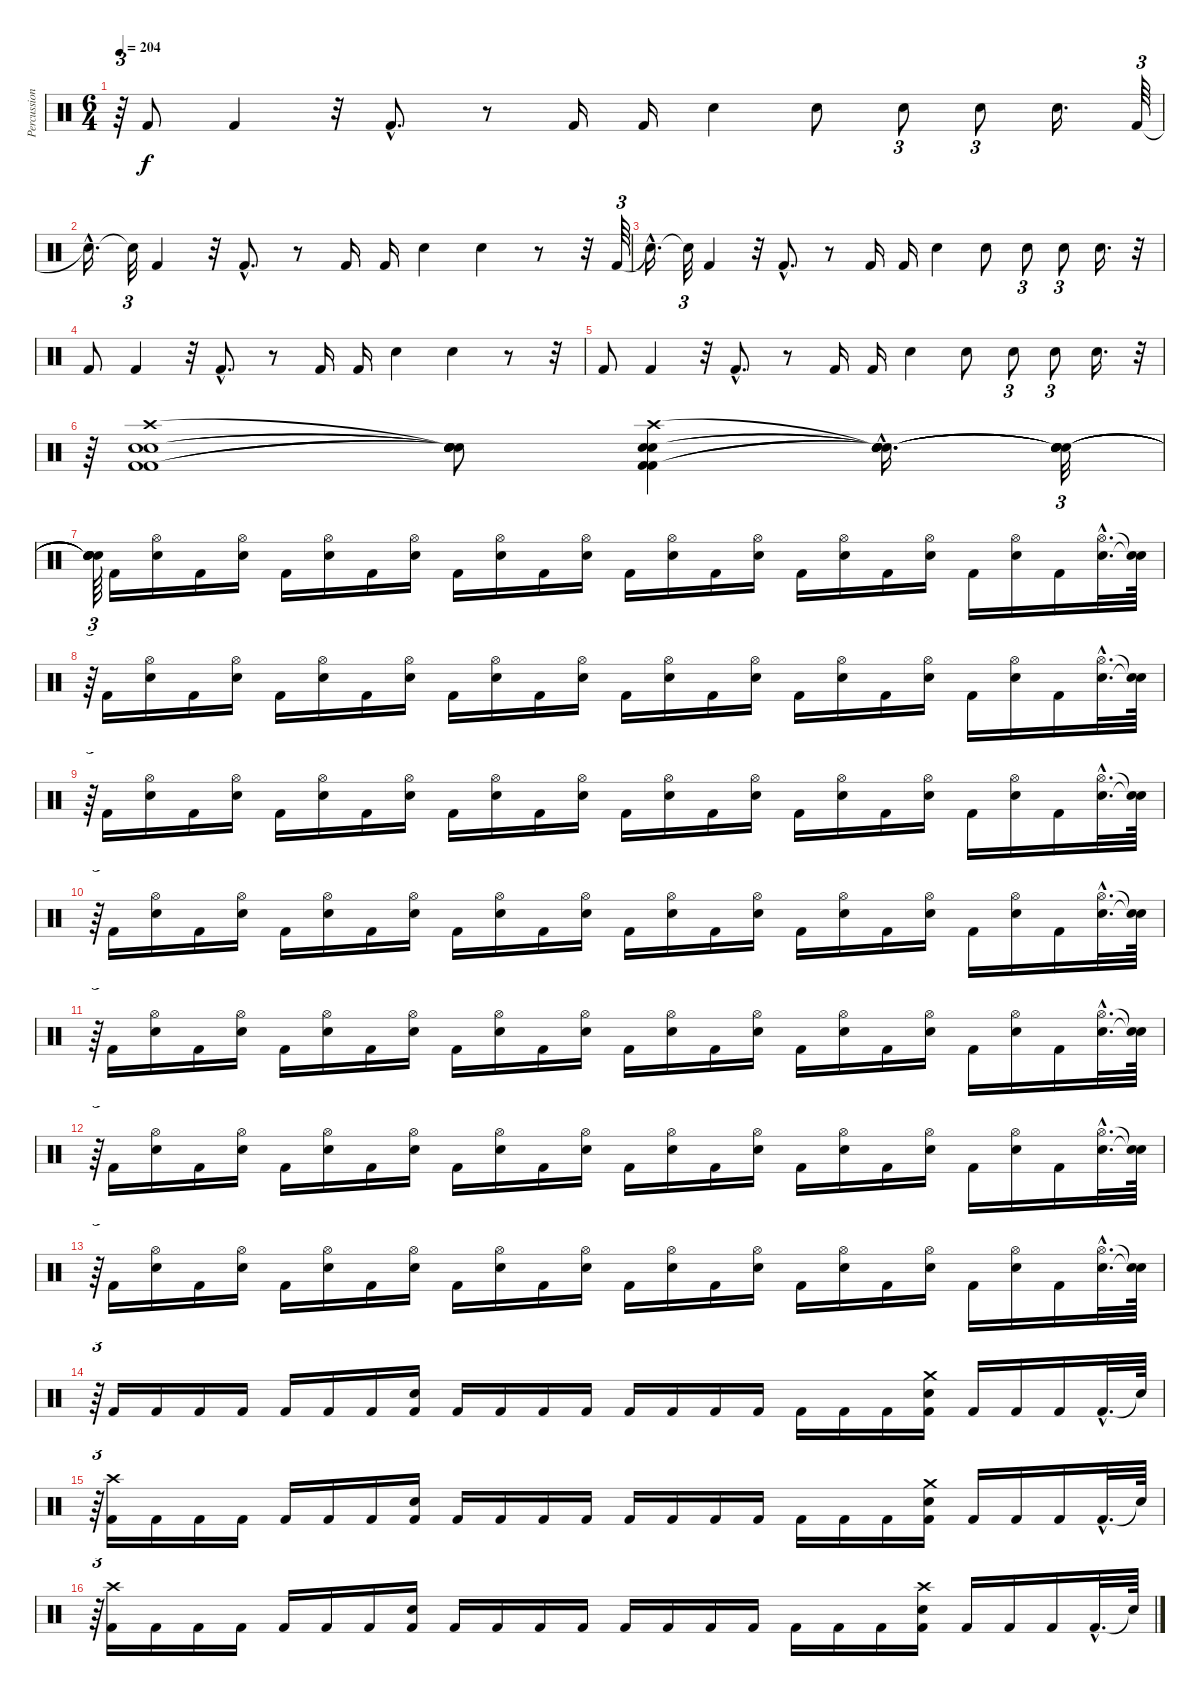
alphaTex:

\track ("Percussions" "Percussion") {instrument percussion}
\staff {score}
\articulation defaults
\ts (6 4)
\tempo 204
\clef neutral
\ks c
r.64{tu (3 2) dy f} "Kick (hit) 2".8 "Kick (hit) 2".4 r.32 "Kick (hit) 2"{hac}.8{d} r.8 "Kick (hit) 2".16 "Kick (hit) 2".16 "Electric Snare (hit)".4 "Electric Snare (hit)".8 "Electric Snare (hit)".8{tu (3 2)} "Electric Snare (hit)".8{tu (3 2)} "Electric Snare (hit)".16{d} "Kick (hit) 2".64{tu (3 2)} |
"Snare (hit)"{hac t}.16{d} "Snare (hit)"{t}.32{tu (3 2)} "Kick (hit) 2".4 r.32 "Kick (hit) 2"{hac}.8{d} r.8 "Kick (hit) 2".16 "Kick (hit) 2".16 "Electric Snare (hit)".4 "Electric Snare (hit)".4 r.8 r.32 "Kick (hit) 2".64{tu (3 2)} |
"Snare (hit)"{hac t}.16{d} "Snare (hit)"{t}.32{tu (3 2)} "Kick (hit) 2".4 r.32 "Kick (hit) 2"{hac}.8{d} r.8 "Kick (hit) 2".16 "Kick (hit) 2".16 "Electric Snare (hit)".4 "Electric Snare (hit)".8 "Electric Snare (hit)".8{tu (3 2)} "Electric Snare (hit)".8{tu (3 2)} "Electric Snare (hit)".16{d} r.32 |
"Kick (hit) 2".8 "Kick (hit) 2".4 r.32 "Kick (hit) 2"{hac}.8{d} r.8 "Kick (hit) 2".16 "Kick (hit) 2".16 "Electric Snare (hit)".4 "Electric Snare (hit)".4 r.8 r.32 |
"Kick (hit) 2".8 "Kick (hit) 2".4 r.32 "Kick (hit) 2"{hac}.8{d} r.8 "Kick (hit) 2".16 "Kick (hit) 2".16 "Electric Snare (hit)".4 "Electric Snare (hit)".8 "Electric Snare (hit)".8{tu (3 2)} "Electric Snare (hit)".8{tu (3 2)} "Electric Snare (hit)".16{d} r.32{tu (3 2)} |
r.64{tu (3 2)} ("Crash high (hit)" "Electric Snare (hit)" "Kick (hit) 2" "Electric Snare (hit)" "Kick (hit) 2").1{volume 10} ("Snare (hit)"{t} "Snare (hit)"{t} "Snare (hit)"{t} "Snare (hit)"{t} "Snare (hit)"{t}).8 ("Crash high (hit)" "Electric Snare (hit)" "Electric Snare (hit)" "Kick (hit) 2" "Kick (hit) 2").4 ("Snare (hit)"{hac t} "Snare (hit)"{hac t} "Snare (hit)"{hac t} "Snare (hit)"{hac t} "Snare (hit)"{hac t}).16{d} ("Snare (hit)"{t} "Snare (hit)"{t} "Snare (hit)"{t} "Snare (hit)"{t} "Snare (hit)"{t}).32{tu (3 2)} |
("Snare (hit)"{t} "Snare (hit)"{t} "Snare (hit)"{t} "Snare (hit)"{t} "Snare (hit)"{t}).64{tu (3 2)} "Kick (hit) 2".16{volume 10} ("Hi-Hat (open)" "Electric Snare (hit)").16 "Kick (hit) 2".16 ("Hi-Hat (open)" "Electric Snare (hit)").16 "Kick (hit) 2".16 ("Hi-Hat (open)" "Electric Snare (hit)").16 "Kick (hit) 2".16 ("Hi-Hat (open)" "Electric Snare (hit)").16 "Kick (hit) 2".16 ("Hi-Hat (open)" "Electric Snare (hit)").16 "Kick (hit) 2".16 ("Hi-Hat (open)" "Electric Snare (hit)").16 "Kick (hit) 2".16 ("Hi-Hat (open)" "Electric Snare (hit)").16 "Kick (hit) 2".16 ("Hi-Hat (open)" "Electric Snare (hit)").16 "Kick (hit) 2".16 ("Hi-Hat (open)" "Electric Snare (hit)").16 "Kick (hit) 2".16 ("Hi-Hat (open)" "Electric Snare (hit)").16 "Kick (hit) 2".16 ("Hi-Hat (open)" "Electric Snare (hit)").16 "Kick (hit) 2".16 ("Hi-Hat (open)"{hac} "Electric Snare (hit)"{hac}).32{d} ("Snare (hit)"{t} "Snare (hit)"{t}).64 |
r.64{tu (3 2)} "Kick (hit) 2".16{volume 10} ("Hi-Hat (open)" "Electric Snare (hit)").16 "Kick (hit) 2".16 ("Hi-Hat (open)" "Electric Snare (hit)").16 "Kick (hit) 2".16 ("Hi-Hat (open)" "Electric Snare (hit)").16 "Kick (hit) 2".16 ("Hi-Hat (open)" "Electric Snare (hit)").16 "Kick (hit) 2".16 ("Hi-Hat (open)" "Electric Snare (hit)").16 "Kick (hit) 2".16 ("Hi-Hat (open)" "Electric Snare (hit)").16 "Kick (hit) 2".16 ("Hi-Hat (open)" "Electric Snare (hit)").16 "Kick (hit) 2".16 ("Hi-Hat (open)" "Electric Snare (hit)").16 "Kick (hit) 2".16 ("Hi-Hat (open)" "Electric Snare (hit)").16 "Kick (hit) 2".16 ("Hi-Hat (open)" "Electric Snare (hit)").16 "Kick (hit) 2".16 ("Hi-Hat (open)" "Electric Snare (hit)").16 "Kick (hit) 2".16 ("Hi-Hat (open)"{hac} "Electric Snare (hit)"{hac}).32{d} ("Snare (hit)"{t} "Snare (hit)"{t}).64 |
r.64{tu (3 2)} "Kick (hit) 2".16{volume 10} ("Hi-Hat (open)" "Electric Snare (hit)").16 "Kick (hit) 2".16 ("Hi-Hat (open)" "Electric Snare (hit)").16 "Kick (hit) 2".16 ("Hi-Hat (open)" "Electric Snare (hit)").16 "Kick (hit) 2".16 ("Hi-Hat (open)" "Electric Snare (hit)").16 "Kick (hit) 2".16 ("Hi-Hat (open)" "Electric Snare (hit)").16 "Kick (hit) 2".16 ("Hi-Hat (open)" "Electric Snare (hit)").16 "Kick (hit) 2".16 ("Hi-Hat (open)" "Electric Snare (hit)").16 "Kick (hit) 2".16 ("Hi-Hat (open)" "Electric Snare (hit)").16 "Kick (hit) 2".16 ("Hi-Hat (open)" "Electric Snare (hit)").16 "Kick (hit) 2".16 ("Hi-Hat (open)" "Electric Snare (hit)").16 "Kick (hit) 2".16 ("Hi-Hat (open)" "Electric Snare (hit)").16 "Kick (hit) 2".16 ("Hi-Hat (open)"{hac} "Electric Snare (hit)"{hac}).32{d} ("Snare (hit)"{t} "Snare (hit)"{t}).64 |
r.64{tu (3 2)} "Kick (hit) 2".16{volume 10} ("Hi-Hat (open)" "Electric Snare (hit)").16 "Kick (hit) 2".16 ("Hi-Hat (open)" "Electric Snare (hit)").16 "Kick (hit) 2".16 ("Hi-Hat (open)" "Electric Snare (hit)").16 "Kick (hit) 2".16 ("Hi-Hat (open)" "Electric Snare (hit)").16 "Kick (hit) 2".16 ("Hi-Hat (open)" "Electric Snare (hit)").16 "Kick (hit) 2".16 ("Hi-Hat (open)" "Electric Snare (hit)").16 "Kick (hit) 2".16 ("Hi-Hat (open)" "Electric Snare (hit)").16 "Kick (hit) 2".16 ("Hi-Hat (open)" "Electric Snare (hit)").16 "Kick (hit) 2".16 ("Hi-Hat (open)" "Electric Snare (hit)").16 "Kick (hit) 2".16 ("Hi-Hat (open)" "Electric Snare (hit)").16 "Kick (hit) 2".16 ("Hi-Hat (open)" "Electric Snare (hit)").16 "Kick (hit) 2".16 ("Hi-Hat (open)"{hac} "Electric Snare (hit)"{hac}).32{d} ("Snare (hit)"{t} "Snare (hit)"{t}).64 |
r.64{tu (3 2)} "Kick (hit) 2".16{volume 10} ("Hi-Hat (open)" "Electric Snare (hit)").16 "Kick (hit) 2".16 ("Hi-Hat (open)" "Electric Snare (hit)").16 "Kick (hit) 2".16 ("Hi-Hat (open)" "Electric Snare (hit)").16 "Kick (hit) 2".16 ("Hi-Hat (open)" "Electric Snare (hit)").16 "Kick (hit) 2".16 ("Hi-Hat (open)" "Electric Snare (hit)").16 "Kick (hit) 2".16 ("Hi-Hat (open)" "Electric Snare (hit)").16 "Kick (hit) 2".16 ("Hi-Hat (open)" "Electric Snare (hit)").16 "Kick (hit) 2".16 ("Hi-Hat (open)" "Electric Snare (hit)").16 "Kick (hit) 2".16 ("Hi-Hat (open)" "Electric Snare (hit)").16 "Kick (hit) 2".16 ("Hi-Hat (open)" "Electric Snare (hit)").16 "Kick (hit) 2".16 ("Hi-Hat (open)" "Electric Snare (hit)").16 "Kick (hit) 2".16 ("Hi-Hat (open)"{hac} "Electric Snare (hit)"{hac}).32{d} ("Snare (hit)"{t} "Snare (hit)"{t}).64 |
r.64{tu (3 2)} "Kick (hit) 2".16{volume 10} ("Hi-Hat (open)" "Electric Snare (hit)").16 "Kick (hit) 2".16 ("Hi-Hat (open)" "Electric Snare (hit)").16 "Kick (hit) 2".16 ("Hi-Hat (open)" "Electric Snare (hit)").16 "Kick (hit) 2".16 ("Hi-Hat (open)" "Electric Snare (hit)").16 "Kick (hit) 2".16 ("Hi-Hat (open)" "Electric Snare (hit)").16 "Kick (hit) 2".16 ("Hi-Hat (open)" "Electric Snare (hit)").16 "Kick (hit) 2".16 ("Hi-Hat (open)" "Electric Snare (hit)").16 "Kick (hit) 2".16 ("Hi-Hat (open)" "Electric Snare (hit)").16 "Kick (hit) 2".16 ("Hi-Hat (open)" "Electric Snare (hit)").16 "Kick (hit) 2".16 ("Hi-Hat (open)" "Electric Snare (hit)").16 "Kick (hit) 2".16 ("Hi-Hat (open)" "Electric Snare (hit)").16 "Kick (hit) 2".16 ("Hi-Hat (open)"{hac} "Electric Snare (hit)"{hac}).32{d} ("Snare (hit)"{t} "Snare (hit)"{t}).64 |
r.64{tu (3 2)} "Kick (hit) 2".16{volume 10} ("Hi-Hat (open)" "Electric Snare (hit)").16 "Kick (hit) 2".16 ("Hi-Hat (open)" "Electric Snare (hit)").16 "Kick (hit) 2".16 ("Hi-Hat (open)" "Electric Snare (hit)").16 "Kick (hit) 2".16 ("Hi-Hat (open)" "Electric Snare (hit)").16 "Kick (hit) 2".16 ("Hi-Hat (open)" "Electric Snare (hit)").16 "Kick (hit) 2".16 ("Hi-Hat (open)" "Electric Snare (hit)").16 "Kick (hit) 2".16 ("Hi-Hat (open)" "Electric Snare (hit)").16 "Kick (hit) 2".16 ("Hi-Hat (open)" "Electric Snare (hit)").16 "Kick (hit) 2".16 ("Hi-Hat (open)" "Electric Snare (hit)").16 "Kick (hit) 2".16 ("Hi-Hat (open)" "Electric Snare (hit)").16 "Kick (hit) 2".16 ("Hi-Hat (open)" "Electric Snare (hit)").16 "Kick (hit) 2".16 ("Hi-Hat (open)"{hac} "Electric Snare (hit)"{hac}).32{d} ("Snare (hit)"{t} "Snare (hit)"{t}).64 |
r.64{tu (3 2)} "Kick (hit) 2".16 "Kick (hit) 2".16 "Kick (hit) 2".16 "Kick (hit) 2".16 "Kick (hit) 2".16 "Kick (hit) 2".16 "Kick (hit) 2".16 ("Electric Snare (hit)" "Kick (hit) 2").16 "Kick (hit) 2".16 "Kick (hit) 2".16 "Kick (hit) 2".16 "Kick (hit) 2".16 "Kick (hit) 2".16 "Kick (hit) 2".16 "Kick (hit) 2".16 "Kick (hit) 2".16 "Kick (hit) 2".16 "Kick (hit) 2".16 "Kick (hit) 2".16 ("Crash medium (hit)" "Electric Snare (hit)" "Kick (hit) 2").16 "Kick (hit) 2".16 "Kick (hit) 2".16 "Kick (hit) 2".16 "Kick (hit) 2"{hac}.32{d} "Snare (hit)"{t}.64 |
r.64{tu (3 2)} ("Crash high (hit)" "Kick (hit) 2").16 "Kick (hit) 2".16 "Kick (hit) 2".16 "Kick (hit) 2".16 "Kick (hit) 2".16 "Kick (hit) 2".16 "Kick (hit) 2".16 ("Electric Snare (hit)" "Kick (hit) 2").16 "Kick (hit) 2".16 "Kick (hit) 2".16 "Kick (hit) 2".16 "Kick (hit) 2".16 "Kick (hit) 2".16 "Kick (hit) 2".16 "Kick (hit) 2".16 "Kick (hit) 2".16 "Kick (hit) 2".16 "Kick (hit) 2".16 "Kick (hit) 2".16 ("Crash medium (hit)" "Electric Snare (hit)" "Kick (hit) 2").16 "Kick (hit) 2".16 "Kick (hit) 2".16 "Kick (hit) 2".16 "Kick (hit) 2"{hac}.32{d} "Snare (hit)"{t}.64 |
r.64{tu (3 2)} ("Crash high (hit)" "Kick (hit) 2").16 "Kick (hit) 2".16 "Kick (hit) 2".16 "Kick (hit) 2".16 "Kick (hit) 2".16 "Kick (hit) 2".16 "Kick (hit) 2".16 ("Electric Snare (hit)" "Kick (hit) 2").16 "Kick (hit) 2".16 "Kick (hit) 2".16 "Kick (hit) 2".16 "Kick (hit) 2".16 "Kick (hit) 2".16 "Kick (hit) 2".16 "Kick (hit) 2".16 "Kick (hit) 2".16 "Kick (hit) 2".16 "Kick (hit) 2".16 "Kick (hit) 2".16 ("Crash high (hit)" "Electric Snare (hit)" "Kick (hit) 2").16 "Kick (hit) 2".16 "Kick (hit) 2".16 "Kick (hit) 2".16 "Kick (hit) 2"{hac}.32{d} "Snare (hit)"{t}.64
